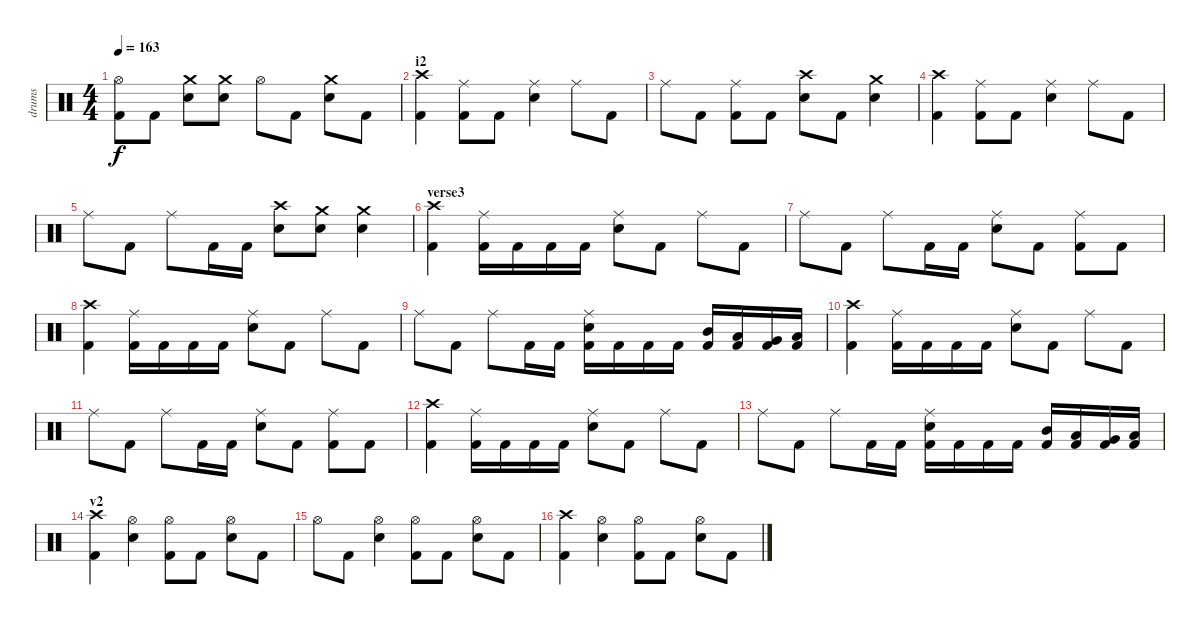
\track ("drums" "drums") {instrument percussion}
\staff {score}
\articulation defaults
\ts (4 4)
\tempo 163
\clef neutral
\ks c
("Hi-Hat (open)" "Kick (hit) 2").8{dy f} "Kick (hit) 2".8 ("Crash medium (hit)" "Electric Snare (hit)").8 ("Crash medium (hit)" "Electric Snare (hit)").8 "Hi-Hat (open)".8 "Kick (hit) 2".8 ("Crash medium (hit)" "Electric Snare (hit)").8 "Kick (hit) 2".8 |
\section ("" "i2")
("Crash high (hit)" "Kick (hit) 2").4 ("Ride (middle)" "Kick (hit) 2").8 "Kick (hit) 2".8 ("Ride (middle)" "Electric Snare (hit)").4 "Ride (middle)".8 "Kick (hit) 2".8 |
"Ride (middle)".8 "Kick (hit) 2".8 ("Ride (middle)" "Kick (hit) 2").8 "Kick (hit) 2".8 ("Crash high (hit)" "Electric Snare (hit)").8 "Kick (hit) 2".8 ("Crash medium (hit)" "Electric Snare (hit)").4 |
("Crash high (hit)" "Kick (hit) 2").4 ("Ride (middle)" "Kick (hit) 2").8 "Kick (hit) 2".8 ("Ride (middle)" "Electric Snare (hit)").4 "Ride (middle)".8 "Kick (hit) 2".8 |
"Ride (middle)".8 "Kick (hit) 2".8 "Ride (middle)".8 "Kick (hit) 2".16 "Kick (hit) 2".16 ("Crash high (hit)" "Electric Snare (hit)").8 ("Crash medium (hit)" "Electric Snare (hit)").8 ("Crash medium (hit)" "Electric Snare (hit)").4 |
\section ("" "verse3")
("Crash high (hit)" "Kick (hit) 2").4 ("Ride (middle)" "Kick (hit) 2").16 "Kick (hit) 2".16 "Kick (hit) 2".16 "Kick (hit) 2".16 ("Ride (middle)" "Electric Snare (hit)").8 "Kick (hit) 2".8 "Ride (middle)".8 "Kick (hit) 2".8 |
"Ride (middle)".8 "Kick (hit) 2".8 "Ride (middle)".8 "Kick (hit) 2".16 "Kick (hit) 2".16 ("Ride (middle)" "Electric Snare (hit)").8 "Kick (hit) 2".8 ("Ride (middle)" "Kick (hit) 2").8 "Kick (hit) 2".8 |
("Crash high (hit)" "Kick (hit) 2").4 ("Ride (middle)" "Kick (hit) 2").16 "Kick (hit) 2".16 "Kick (hit) 2".16 "Kick (hit) 2".16 ("Ride (middle)" "Electric Snare (hit)").8 "Kick (hit) 2".8 "Ride (middle)".8 "Kick (hit) 2".8 |
"Ride (middle)".8 "Kick (hit) 2".8 "Ride (middle)".8 "Kick (hit) 2".16 "Kick (hit) 2".16 ("Ride (middle)" "Electric Snare (hit)" "Kick (hit) 2").16 "Kick (hit) 2".16 "Kick (hit) 2".16 "Kick (hit) 2".16 ("Mid Tom (hit)" "Kick (hit) 2").16 ("Low Tom (hit)" "Kick (hit) 2").16 ("Very Low Tom (hit)" "Kick (hit) 2").16 ("Low Floor Tom (hit)" "Kick (hit) 2").16 |
("Crash high (hit)" "Kick (hit) 2").4 ("Ride (middle)" "Kick (hit) 2").16 "Kick (hit) 2".16 "Kick (hit) 2".16 "Kick (hit) 2".16 ("Ride (middle)" "Electric Snare (hit)").8 "Kick (hit) 2".8 "Ride (middle)".8 "Kick (hit) 2".8 |
"Ride (middle)".8 "Kick (hit) 2".8 "Ride (middle)".8 "Kick (hit) 2".16 "Kick (hit) 2".16 ("Ride (middle)" "Electric Snare (hit)").8 "Kick (hit) 2".8 ("Ride (middle)" "Kick (hit) 2").8 "Kick (hit) 2".8 |
("Crash high (hit)" "Kick (hit) 2").4 ("Ride (middle)" "Kick (hit) 2").16 "Kick (hit) 2".16 "Kick (hit) 2".16 "Kick (hit) 2".16 ("Ride (middle)" "Electric Snare (hit)").8 "Kick (hit) 2".8 "Ride (middle)".8 "Kick (hit) 2".8 |
"Ride (middle)".8 "Kick (hit) 2".8 "Ride (middle)".8 "Kick (hit) 2".16 "Kick (hit) 2".16 ("Ride (middle)" "Electric Snare (hit)" "Kick (hit) 2").16 "Kick (hit) 2".16 "Kick (hit) 2".16 "Kick (hit) 2".16 ("Mid Tom (hit)" "Kick (hit) 2").16 ("Low Tom (hit)" "Kick (hit) 2").16 ("Very Low Tom (hit)" "Kick (hit) 2").16 ("Low Floor Tom (hit)" "Kick (hit) 2").16 |
\section ("" "v2")
("Crash high (hit)" "Kick (hit) 2").4 ("Hi-Hat (open)" "Electric Snare (hit)").4 ("Hi-Hat (open)" "Kick (hit) 2").8 "Kick (hit) 2".8 ("Hi-Hat (open)" "Electric Snare (hit)").8 "Kick (hit) 2".8 |
"Hi-Hat (open)".8 "Kick (hit) 2".8 ("Hi-Hat (open)" "Electric Snare (hit)").4 ("Hi-Hat (open)" "Kick (hit) 2").8 "Kick (hit) 2".8 ("Hi-Hat (open)" "Electric Snare (hit)").8 "Kick (hit) 2".8 |
("Crash high (hit)" "Kick (hit) 2").4 ("Hi-Hat (open)" "Electric Snare (hit)").4 ("Hi-Hat (open)" "Kick (hit) 2").8 "Kick (hit) 2".8 ("Hi-Hat (open)" "Electric Snare (hit)").8 "Kick (hit) 2".8
